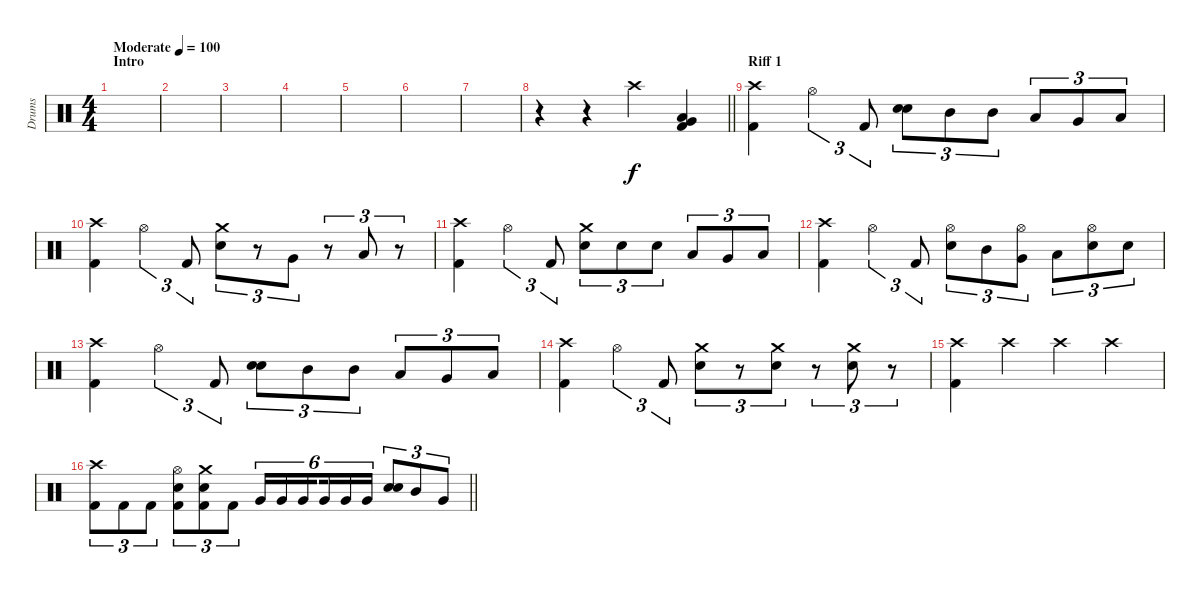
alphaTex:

\track ("Drums" "Drums") {instrument percussion}
\staff {score}
\articulation defaults
\ts (4 4)
\section ("" "Intro")
\tempo (100 "Moderate")
\clef neutral
\ks c
|
|
|
|
|
|
|
\barLineRight lightlight
r.4 r.4 "Crash high (hit)".4 ("Low Floor Tom (hit)" "Very Low Tom (hit)" "Kick (hit) 2").4 |
\section ("" "Riff 1")
("Crash high (hit)" "Kick (hit) 2").4 "Hi-Hat (open)".4{tu (3 2)} "Kick (hit) 2".8{tu (3 2)} ("Electric Snare (hit)" "Electric Snare (hit)").8{tu (3 2) bd 480} "Mid Tom (hit)".8{tu (3 2)} "Mid Tom (hit)".8{tu (3 2)} "Low Tom (hit)".8{tu (3 2)} "Very Low Tom (hit)".8{tu (3 2)} "Low Floor Tom (hit)".8{tu (3 2)} |
("Crash high (hit)" "Kick (hit) 2").4 "Hi-Hat (open)".4{tu (3 2)} "Kick (hit) 2".8{tu (3 2)} ("Crash medium (hit)" "Electric Snare (hit)").8{tu (3 2)} r.8{tu (3 2)} "Very Low Tom (hit)".8{tu (3 2)} r.8{tu (3 2)} "Low Floor Tom (hit)".8{tu (3 2)} r.8{tu (3 2)} |
("Crash high (hit)" "Kick (hit) 2").4 "Hi-Hat (open)".4{tu (3 2)} "Kick (hit) 2".8{tu (3 2)} ("Crash medium (hit)" "Electric Snare (hit)").8{tu (3 2)} "Electric Snare (hit)".8{tu (3 2)} "Electric Snare (hit)".8{tu (3 2)} "Low Tom (hit)".8{tu (3 2)} "Very Low Tom (hit)".8{tu (3 2)} "Low Floor Tom (hit)".8{tu (3 2)} |
("Crash high (hit)" "Kick (hit) 2").4 "Hi-Hat (open)".4{tu (3 2)} "Kick (hit) 2".8{tu (3 2)} ("Hi-Hat (open)" "Electric Snare (hit)").8{tu (3 2)} "Mid Tom (hit)".8{tu (3 2)} ("Hi-Hat (open)" "Very Low Tom (hit)").8{tu (3 2)} "Low Floor Tom (hit)".8{tu (3 2)} ("Hi-Hat (open)" "Electric Snare (hit)").8{tu (3 2)} "Electric Snare (hit)".8{tu (3 2)} |
("Crash high (hit)" "Kick (hit) 2").4 "Hi-Hat (open)".4{tu (3 2)} "Kick (hit) 2".8{tu (3 2)} ("Electric Snare (hit)" "Electric Snare (hit)").8{tu (3 2) bd 480} "Mid Tom (hit)".8{tu (3 2)} "Mid Tom (hit)".8{tu (3 2)} "Low Tom (hit)".8{tu (3 2)} "Very Low Tom (hit)".8{tu (3 2)} "Low Floor Tom (hit)".8{tu (3 2)} |
("Crash high (hit)" "Kick (hit) 2").4 "Hi-Hat (open)".4{tu (3 2)} "Kick (hit) 2".8{tu (3 2)} ("Crash medium (hit)" "Electric Snare (hit)").8{tu (3 2)} r.8{tu (3 2)} ("Crash medium (hit)" "Electric Snare (hit)").8{tu (3 2)} r.8{tu (3 2)} ("Crash medium (hit)" "Electric Snare (hit)").8{tu (3 2)} r.8{tu (3 2)} |
("Crash high (hit)" "Kick (hit) 2").4 "Crash high (hit)".4 "Crash high (hit)".4 "Crash high (hit)".4 |
\barLineRight lightlight
("Crash high (hit)" "Kick (hit) 2").8{tu (3 2)} "Kick (hit) 2".8{tu (3 2)} "Kick (hit) 2".8{tu (3 2)} ("Hi-Hat (open)" "Electric Snare (hit)" "Kick (hit) 2").8{tu (3 2)} ("Crash medium (hit)" "Electric Snare (hit)" "Kick (hit) 2").8{tu (3 2)} "Kick (hit) 2".8{tu (3 2)} "Very Low Tom (hit)".16{tu (6 4)} "Very Low Tom (hit)".16{tu (6 4)} "Very Low Tom (hit)".16{tu (6 4) beam splitsecondary} "Very Low Tom (hit)".16{tu (6 4)} "Very Low Tom (hit)".16{tu (6 4)} "Very Low Tom (hit)".16{tu (6 4)} ("Electric Snare (hit)" "Electric Snare (hit)").8{tu (3 2) bd 480} "Mid Tom (hit)".8{tu (3 2)} "Very Low Tom (hit)".8{tu (3 2)}
